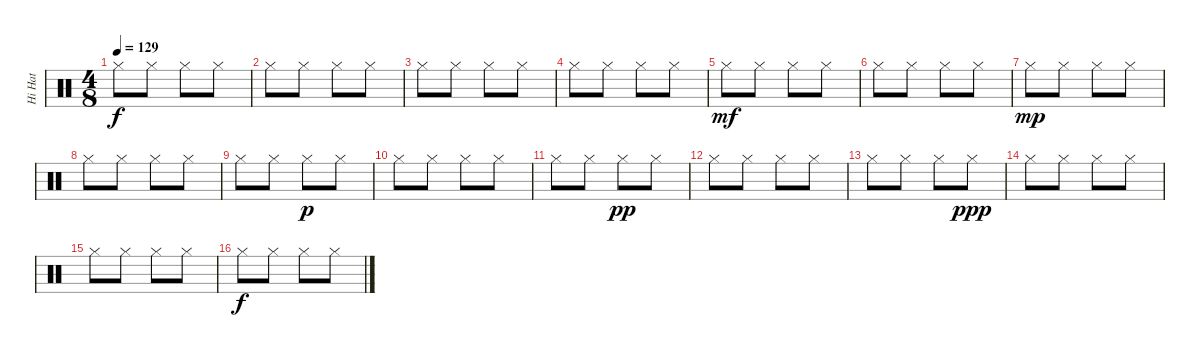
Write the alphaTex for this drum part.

\track ("Hi Hat" "Hi Hat") {instrument percussion}
\staff {score}
\articulation defaults
\ts (4 8)
\tempo 129
\clef neutral
\ks c "Hi-Hat (closed)".8{dy f} "Hi-Hat (closed)".8 "Hi-Hat (closed)".8 "Hi-Hat (closed)".8
|
"Hi-Hat (closed)".8 "Hi-Hat (closed)".8 "Hi-Hat (closed)".8 "Hi-Hat (closed)".8 |
"Hi-Hat (closed)".8 "Hi-Hat (closed)".8 "Hi-Hat (closed)".8 "Hi-Hat (closed)".8 |
"Hi-Hat (closed)".8 "Hi-Hat (closed)".8 "Hi-Hat (closed)".8 "Hi-Hat (closed)".8 |
"Hi-Hat (closed)".8{dy mf} "Hi-Hat (closed)".8 "Hi-Hat (closed)".8 "Hi-Hat (closed)".8 |
"Hi-Hat (closed)".8 "Hi-Hat (closed)".8 "Hi-Hat (closed)".8 "Hi-Hat (closed)".8 |
"Hi-Hat (closed)".8{dy mp} "Hi-Hat (closed)".8 "Hi-Hat (closed)".8 "Hi-Hat (closed)".8 |
"Hi-Hat (closed)".8 "Hi-Hat (closed)".8 "Hi-Hat (closed)".8 "Hi-Hat (closed)".8 |
"Hi-Hat (closed)".8 "Hi-Hat (closed)".8 "Hi-Hat (closed)".8{dy p} "Hi-Hat (closed)".8 |
"Hi-Hat (closed)".8 "Hi-Hat (closed)".8 "Hi-Hat (closed)".8 "Hi-Hat (closed)".8 |
"Hi-Hat (closed)".8 "Hi-Hat (closed)".8 "Hi-Hat (closed)".8{dy pp} "Hi-Hat (closed)".8 |
"Hi-Hat (closed)".8 "Hi-Hat (closed)".8 "Hi-Hat (closed)".8 "Hi-Hat (closed)".8 |
"Hi-Hat (closed)".8 "Hi-Hat (closed)".8 "Hi-Hat (closed)".8 "Hi-Hat (closed)".8{dy ppp} |
"Hi-Hat (closed)".8 "Hi-Hat (closed)".8 "Hi-Hat (closed)".8 "Hi-Hat (closed)".8 |
"Hi-Hat (closed)".8 "Hi-Hat (closed)".8 "Hi-Hat (closed)".8 "Hi-Hat (closed)".8 |
"Hi-Hat (closed)".8{dy f} "Hi-Hat (closed)".8 "Hi-Hat (closed)".8 "Hi-Hat (closed)".8
